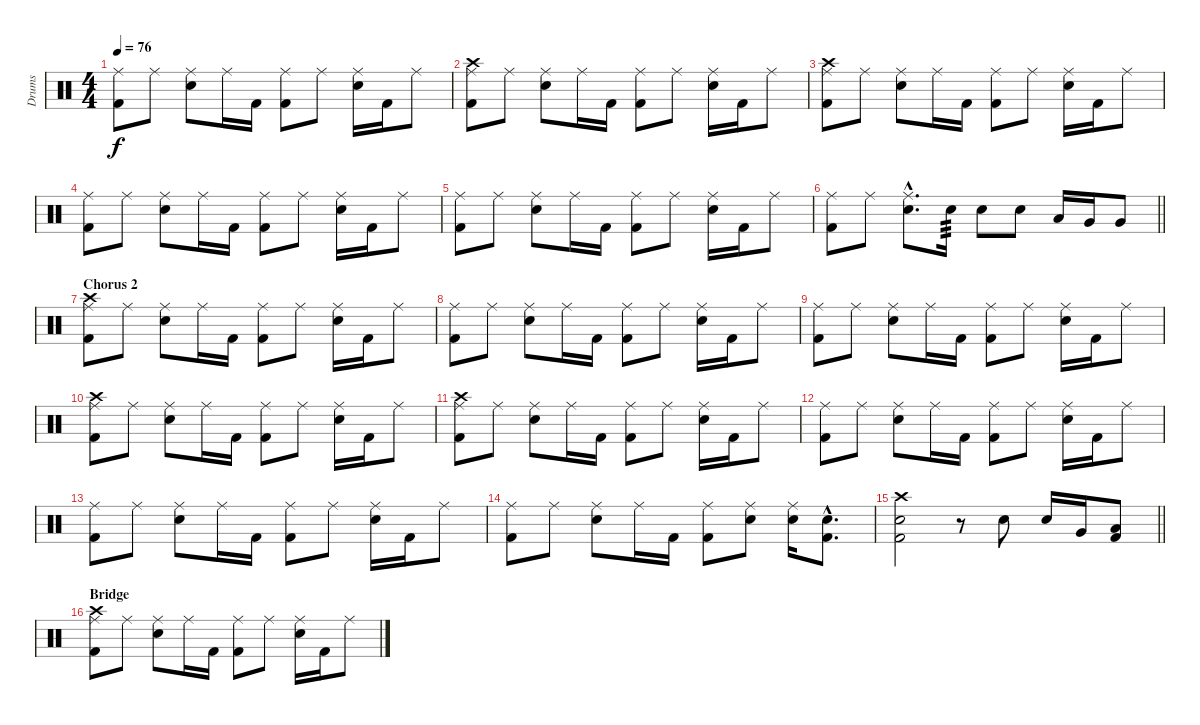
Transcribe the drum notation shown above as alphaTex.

\track ("Drums" "Drums") {instrument percussion}
\staff {score}
\articulation defaults
\ts (4 4)
\tempo 76
\clef neutral
\ks c
("Ride (middle)" "Kick (hit) 2").8{dy f} "Ride (middle)".8 ("Ride (middle)" "Snare (hit) 2").8 "Ride (middle)".16 "Kick (hit) 2".16 ("Ride (middle)" "Kick (hit) 2").8 "Ride (middle)".8 ("Ride (middle)" "Snare (hit) 2").16 "Kick (hit) 2".16 "Ride (middle)".8 |
("Crash high (hit)" "Ride (middle)" "Kick (hit) 2").8 "Ride (middle)".8 ("Ride (middle)" "Snare (hit) 2").8 "Ride (middle)".16 "Kick (hit) 2".16 ("Ride (middle)" "Kick (hit) 2").8 "Ride (middle)".8 ("Ride (middle)" "Snare (hit) 2").16 "Kick (hit) 2".16 "Ride (middle)".8 |
("Crash high (hit)" "Ride (middle)" "Kick (hit) 2").8 "Ride (middle)".8 ("Ride (middle)" "Snare (hit) 2").8 "Ride (middle)".16 "Kick (hit) 2".16 ("Ride (middle)" "Kick (hit) 2").8 "Ride (middle)".8 ("Ride (middle)" "Snare (hit) 2").16 "Kick (hit) 2".16 "Ride (middle)".8 |
("Ride (middle)" "Kick (hit) 2").8 "Ride (middle)".8 ("Ride (middle)" "Snare (hit) 2").8 "Ride (middle)".16 "Kick (hit) 2".16 ("Ride (middle)" "Kick (hit) 2").8 "Ride (middle)".8 ("Ride (middle)" "Snare (hit) 2").16 "Kick (hit) 2".16 "Ride (middle)".8 |
("Ride (middle)" "Kick (hit) 2").8 "Ride (middle)".8 ("Ride (middle)" "Snare (hit) 2").8 "Ride (middle)".16 "Kick (hit) 2".16 ("Ride (middle)" "Kick (hit) 2").8 "Ride (middle)".8 ("Ride (middle)" "Snare (hit) 2").16 "Kick (hit) 2".16 "Ride (middle)".8 |
\barLineRight lightlight
("Ride (middle)" "Kick (hit) 2").8 "Ride (middle)".8 ("Ride (middle)"{hac} "Snare (hit) 2"{hac}).8{d} "Snare (hit) 2".16{tp 3} "Snare (hit) 2".8 "Snare (hit) 2".8 "Low Tom (hit)".16 "Very Low Tom (hit)".16 "Very Low Tom (hit)".8 |
\section ("" "Chorus 2")
("Crash high (hit)" "Ride (middle)" "Kick (hit) 2").8 "Ride (middle)".8 ("Ride (middle)" "Snare (hit) 2").8 "Ride (middle)".16 "Kick (hit) 2".16 ("Ride (middle)" "Kick (hit) 2").8 "Ride (middle)".8 ("Ride (middle)" "Snare (hit) 2").16 "Kick (hit) 2".16 "Ride (middle)".8 |
("Ride (middle)" "Kick (hit) 2").8 "Ride (middle)".8 ("Ride (middle)" "Snare (hit) 2").8 "Ride (middle)".16 "Kick (hit) 2".16 ("Ride (middle)" "Kick (hit) 2").8 "Ride (middle)".8 ("Ride (middle)" "Snare (hit) 2").16 "Kick (hit) 2".16 "Ride (middle)".8 |
("Ride (middle)" "Kick (hit) 2").8 "Ride (middle)".8 ("Ride (middle)" "Snare (hit) 2").8 "Ride (middle)".16 "Kick (hit) 2".16 ("Ride (middle)" "Kick (hit) 2").8 "Ride (middle)".8 ("Ride (middle)" "Snare (hit) 2").16 "Kick (hit) 2".16 "Ride (middle)".8 |
("Crash high (hit)" "Ride (middle)" "Kick (hit) 2").8 "Ride (middle)".8 ("Ride (middle)" "Snare (hit) 2").8 "Ride (middle)".16 "Kick (hit) 2".16 ("Ride (middle)" "Kick (hit) 2").8 "Ride (middle)".8 ("Ride (middle)" "Snare (hit) 2").16 "Kick (hit) 2".16 "Ride (middle)".8 |
("Crash high (hit)" "Ride (middle)" "Kick (hit) 2").8 "Ride (middle)".8 ("Ride (middle)" "Snare (hit) 2").8 "Ride (middle)".16 "Kick (hit) 2".16 ("Ride (middle)" "Kick (hit) 2").8 "Ride (middle)".8 ("Ride (middle)" "Snare (hit) 2").16 "Kick (hit) 2".16 "Ride (middle)".8 |
("Ride (middle)" "Kick (hit) 2").8 "Ride (middle)".8 ("Ride (middle)" "Snare (hit) 2").8 "Ride (middle)".16 "Kick (hit) 2".16 ("Ride (middle)" "Kick (hit) 2").8 "Ride (middle)".8 ("Ride (middle)" "Snare (hit) 2").16 "Kick (hit) 2".16 "Ride (middle)".8 |
("Ride (middle)" "Kick (hit) 2").8 "Ride (middle)".8 ("Ride (middle)" "Snare (hit) 2").8 "Ride (middle)".16 "Kick (hit) 2".16 ("Ride (middle)" "Kick (hit) 2").8 "Ride (middle)".8 ("Ride (middle)" "Snare (hit) 2").16 "Kick (hit) 2".16 "Ride (middle)".8 |
("Ride (middle)" "Kick (hit) 2").8 "Ride (middle)".8 ("Ride (middle)" "Snare (hit) 2").8 "Ride (middle)".16 "Kick (hit) 2".16 ("Ride (middle)" "Kick (hit) 2").8 ("Ride (middle)" "Snare (hit) 2").8 ("Ride (middle)" "Snare (hit) 2").16 ("Snare (hit) 2"{hac} "Kick (hit) 2"{hac}).8{d} |
\barLineRight lightlight
("Crash high (hit)" "Snare (hit) 2" "Kick (hit) 2").2 r.8 "Snare (hit) 2".8 "Snare (hit) 2".16 "Very Low Tom (hit)".16 ("Low Floor Tom (hit)" "Kick (hit) 2").8 |
\section ("" "Bridge")
("Crash high (hit)" "Ride (middle)" "Kick (hit) 2").8 "Ride (middle)".8 ("Ride (middle)" "Snare (hit) 2").8 "Ride (middle)".16 "Kick (hit) 2".16 ("Ride (middle)" "Kick (hit) 2").8 "Ride (middle)".8 ("Ride (middle)" "Snare (hit) 2").16 "Kick (hit) 2".16 "Ride (middle)".8
